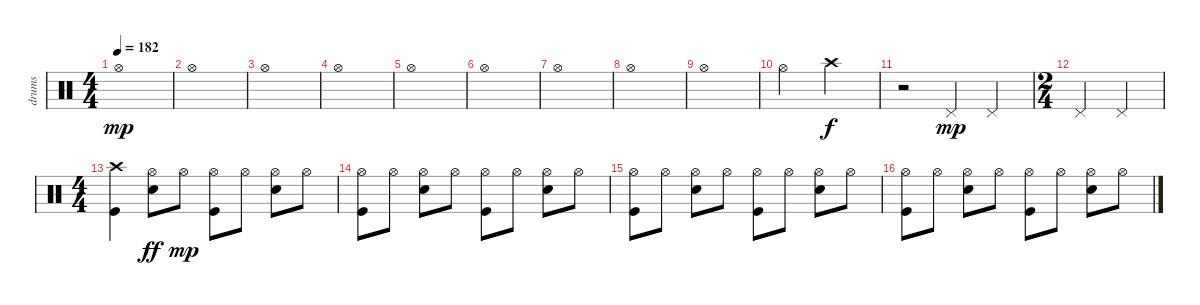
\track ("drums" "drums") {instrument percussion}
\staff {score}
\articulation defaults
\ts (4 4)
\tempo 182
\clef neutral
\ks c "Hi-Hat (open)".1{dy mp}
|
"Hi-Hat (open)".1 |
"Hi-Hat (open)".1 |
"Hi-Hat (open)".1 |
"Hi-Hat (open)".1 |
"Hi-Hat (open)".1 |
"Hi-Hat (open)".1 |
"Hi-Hat (open)".1 |
"Hi-Hat (open)".1 |
"Hi-Hat (open)".2 "Crash high (hit)".2{dy f} |
r.2 "Pedal Hi-Hat (hit)".4{dy mp} "Pedal Hi-Hat (hit)".4 |
\ts (2 4)
"Pedal Hi-Hat (hit)".4 "Pedal Hi-Hat (hit)".4 |
\ts (4 4)
("Kick (hit)" "Crash high (hit)").4 ("Snare (hit) 2" "Hi-Hat (open)").8{dy ff} "Hi-Hat (open)".8{dy mp} ("Kick (hit)" "Hi-Hat (open)").8 "Hi-Hat (open)".8 ("Snare (hit) 2" "Hi-Hat (open)").8 "Hi-Hat (open)".8 |
("Kick (hit)" "Hi-Hat (open)").8 "Hi-Hat (open)".8 ("Snare (hit) 2" "Hi-Hat (open)").8 "Hi-Hat (open)".8 ("Kick (hit)" "Hi-Hat (open)").8 "Hi-Hat (open)".8 ("Snare (hit) 2" "Hi-Hat (open)").8 "Hi-Hat (open)".8 |
("Kick (hit)" "Hi-Hat (open)").8 "Hi-Hat (open)".8 ("Snare (hit) 2" "Hi-Hat (open)").8 "Hi-Hat (open)".8 ("Kick (hit)" "Hi-Hat (open)").8 "Hi-Hat (open)".8 ("Snare (hit) 2" "Hi-Hat (open)").8 "Hi-Hat (open)".8 |
("Kick (hit)" "Hi-Hat (open)").8 "Hi-Hat (open)".8 ("Snare (hit) 2" "Hi-Hat (open)").8 "Hi-Hat (open)".8 ("Kick (hit)" "Hi-Hat (open)").8 "Hi-Hat (open)".8 ("Snare (hit) 2" "Hi-Hat (open)").8 "Hi-Hat (open)".8
